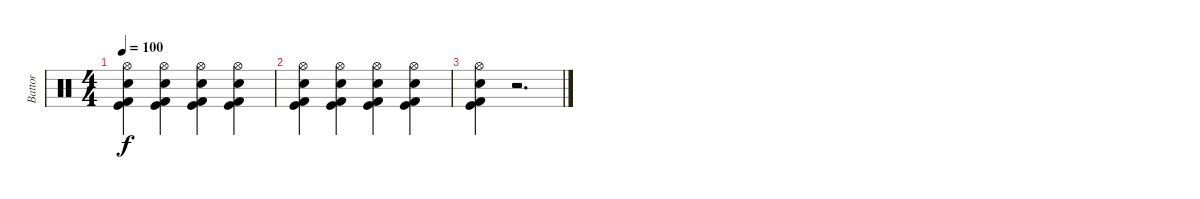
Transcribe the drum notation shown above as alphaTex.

\track ("Battor" "Battor") {instrument percussion}
\staff {score}
\articulation defaults
\ts (4 4)
\tempo 100
\clef neutral
\ks c
("Kick (hit)" "Kick (hit) 2" "Electric Snare (hit)" "Hi-Hat (open)").4{dy f} ("Kick (hit)" "Kick (hit) 2" "Electric Snare (hit)" "Hi-Hat (open)").4 ("Kick (hit)" "Kick (hit) 2" "Electric Snare (hit)" "Hi-Hat (open)").4 ("Kick (hit)" "Kick (hit) 2" "Electric Snare (hit)" "Hi-Hat (open)").4 |
("Kick (hit)" "Kick (hit) 2" "Electric Snare (hit)" "Hi-Hat (open)").4 ("Kick (hit)" "Kick (hit) 2" "Electric Snare (hit)" "Hi-Hat (open)").4 ("Kick (hit)" "Kick (hit) 2" "Electric Snare (hit)" "Hi-Hat (open)").4 ("Kick (hit)" "Kick (hit) 2" "Electric Snare (hit)" "Hi-Hat (open)").4 |
("Kick (hit)" "Kick (hit) 2" "Electric Snare (hit)" "Hi-Hat (open)").4 r.2{d}
